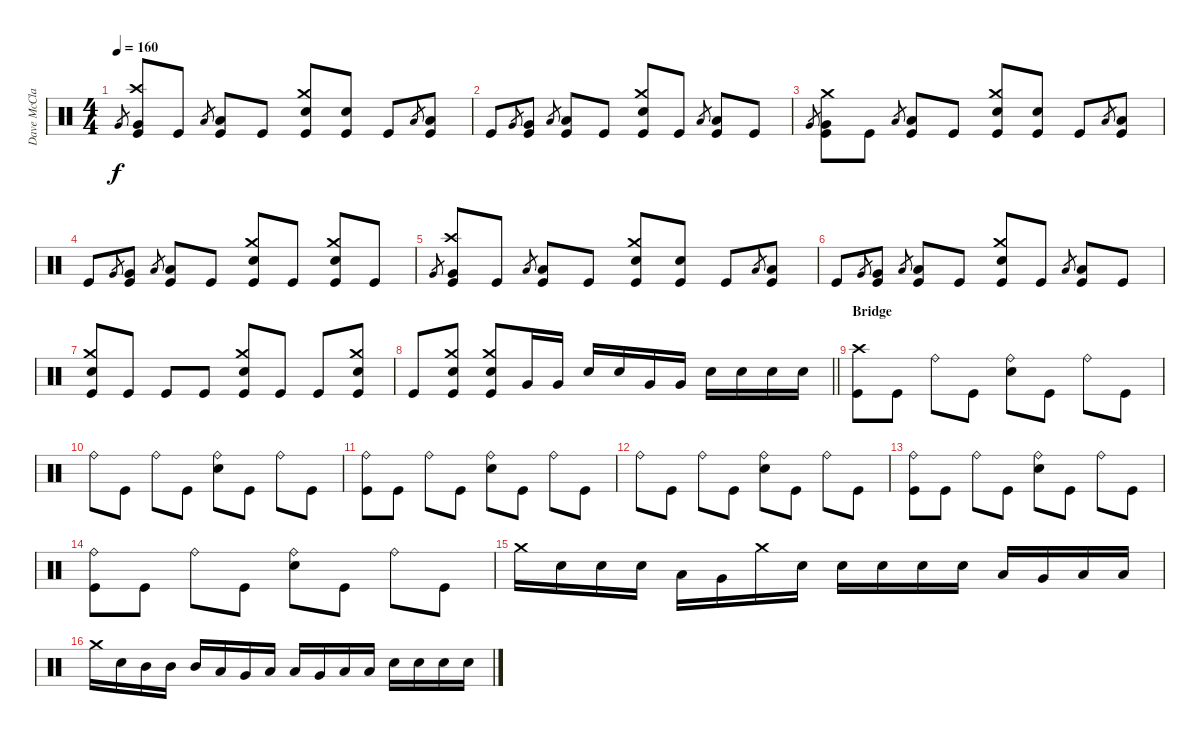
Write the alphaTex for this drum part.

\track ("Dave McClain" "Dave McCla") {instrument percussion}
\staff {score}
\articulation defaults
\ts (4 4)
\tempo 160
\clef neutral
\ks c "Very Low Tom (hit)".8{gr dy f}
("Crash high (hit)" "Very Low Tom (hit)" "Kick (hit)").8 "Kick (hit)".8 "Low Floor Tom (hit)".8{gr} ("Low Floor Tom (hit)" "Kick (hit)").8 "Kick (hit)".8 ("Crash medium (hit)" "Electric Snare (hit)" "Kick (hit)").8 ("Electric Snare (hit)" "Kick (hit)").8 "Kick (hit)".8 "Low Tom (hit)".8{gr} ("Low Tom (hit)" "Kick (hit)").8 |
"Kick (hit)".8 "Very Low Tom (hit)".8{gr} ("Very Low Tom (hit)" "Kick (hit)").8 "Low Floor Tom (hit)".8{gr} ("Low Floor Tom (hit)" "Kick (hit)").8 "Kick (hit)".8 ("Crash medium (hit)" "Electric Snare (hit)" "Kick (hit)").8 "Kick (hit)".8 "Low Floor Tom (hit)".8{gr} ("Low Floor Tom (hit)" "Kick (hit)").8 "Kick (hit)".8 |
"Very Low Tom (hit)".8{gr} ("Crash medium (hit)" "Very Low Tom (hit)" "Kick (hit)").8 "Kick (hit)".8 "Low Floor Tom (hit)".8{gr} ("Low Floor Tom (hit)" "Kick (hit)").8 "Kick (hit)".8 ("Crash medium (hit)" "Electric Snare (hit)" "Kick (hit)").8 ("Electric Snare (hit)" "Kick (hit)").8 "Kick (hit)".8 "Low Tom (hit)".8{gr} ("Low Tom (hit)" "Kick (hit)").8 |
"Kick (hit)".8 "Very Low Tom (hit)".8{gr} ("Very Low Tom (hit)" "Kick (hit)").8 "Low Floor Tom (hit)".8{gr} ("Low Floor Tom (hit)" "Kick (hit)").8 "Kick (hit)".8 ("Crash medium (hit)" "Electric Snare (hit)" "Kick (hit)").8 "Kick (hit)".8 ("Crash medium (hit)" "Electric Snare (hit)" "Kick (hit)").8 "Kick (hit)".8 |
"Very Low Tom (hit)".8{gr} ("Crash high (hit)" "Very Low Tom (hit)" "Kick (hit)").8 "Kick (hit)".8 "Low Floor Tom (hit)".8{gr} ("Low Floor Tom (hit)" "Kick (hit)").8 "Kick (hit)".8 ("Crash medium (hit)" "Electric Snare (hit)" "Kick (hit)").8 ("Electric Snare (hit)" "Kick (hit)").8 "Kick (hit)".8 "Low Tom (hit)".8{gr} ("Low Tom (hit)" "Kick (hit)").8 |
"Kick (hit)".8 "Very Low Tom (hit)".8{gr} ("Very Low Tom (hit)" "Kick (hit)").8 "Low Floor Tom (hit)".8{gr} ("Low Floor Tom (hit)" "Kick (hit)").8 "Kick (hit)".8 ("Crash medium (hit)" "Electric Snare (hit)" "Kick (hit)").8 "Kick (hit)".8 "Low Floor Tom (hit)".8{gr} ("Low Floor Tom (hit)" "Kick (hit)").8 "Kick (hit)".8 |
("Crash medium (hit)" "Electric Snare (hit)" "Kick (hit)").8 "Kick (hit)".8 "Kick (hit)".8 "Kick (hit)".8 ("Crash medium (hit)" "Electric Snare (hit)" "Kick (hit)").8 "Kick (hit)".8 "Kick (hit)".8 ("Crash medium (hit)" "Electric Snare (hit)" "Kick (hit)").8 |
\barLineRight lightlight "Kick (hit)".8
("Crash medium (hit)" "Electric Snare (hit)" "Kick (hit)").8 ("Crash medium (hit)" "Electric Snare (hit)" "Kick (hit)").8 "Very Low Tom (hit)".16 "Very Low Tom (hit)".16 "Electric Snare (hit)".16 "Electric Snare (hit)".16 "Very Low Tom (hit)".16 "Very Low Tom (hit)".16 "Electric Snare (hit)".16 "Electric Snare (hit)".16 "Electric Snare (hit)".16 "Electric Snare (hit)".16 |
\section ("" "Bridge")
("Crash high (hit)" "Kick (hit)").8 "Kick (hit)".8 "Ride (bell)".8 "Kick (hit)".8 ("Ride (bell)" "Electric Snare (hit)").8 "Kick (hit)".8 "Ride (bell)".8 "Kick (hit)".8 |
"Ride (bell)".8 "Kick (hit)".8 "Ride (bell)".8 "Kick (hit)".8 ("Ride (bell)" "Electric Snare (hit)").8 "Kick (hit)".8 "Ride (bell)".8 "Kick (hit)".8 |
("Ride (bell)" "Kick (hit)").8 "Kick (hit)".8 "Ride (bell)".8 "Kick (hit)".8 ("Ride (bell)" "Electric Snare (hit)").8 "Kick (hit)".8 "Ride (bell)".8 "Kick (hit)".8 |
"Ride (bell)".8 "Kick (hit)".8 "Ride (bell)".8 "Kick (hit)".8 ("Ride (bell)" "Electric Snare (hit)").8 "Kick (hit)".8 "Ride (bell)".8 "Kick (hit)".8 |
("Ride (bell)" "Kick (hit)").8 "Kick (hit)".8 "Ride (bell)".8 "Kick (hit)".8 ("Ride (bell)" "Electric Snare (hit)").8 "Kick (hit)".8 "Ride (bell)".8 "Kick (hit)".8 |
("Ride (bell)" "Kick (hit)").8 "Kick (hit)".8 "Ride (bell)".8 "Kick (hit)".8 ("Ride (bell)" "Electric Snare (hit)").8 "Kick (hit)".8 "Ride (bell)".8 "Kick (hit)".8 |
"Crash medium (hit)".16 "Electric Snare (hit)".16 "Electric Snare (hit)".16 "Electric Snare (hit)".16 "Low Tom (hit)".16 "Very Low Tom (hit)".16 "Crash medium (hit)".16 "Electric Snare (hit)".16 "Electric Snare (hit)".16 "Electric Snare (hit)".16 "Electric Snare (hit)".16 "Electric Snare (hit)".16 "Low Tom (hit)".16 "Very Low Tom (hit)".16 "Low Floor Tom (hit)".16 "Low Floor Tom (hit)".16 |
"Crash medium (hit)".16 "Electric Snare (hit)".16 "Mid Tom (hit)".16 "Mid Tom (hit)".16 "Mid Tom (hit)".16 "Low Tom (hit)".16 "Very Low Tom (hit)".16 "Low Floor Tom (hit)".16 "Low Tom (hit)".16 "Very Low Tom (hit)".16 "Low Floor Tom (hit)".16 "Low Floor Tom (hit)".16 "Electric Snare (hit)".16 "Electric Snare (hit)".16 "Electric Snare (hit)".16 "Electric Snare (hit)".16
